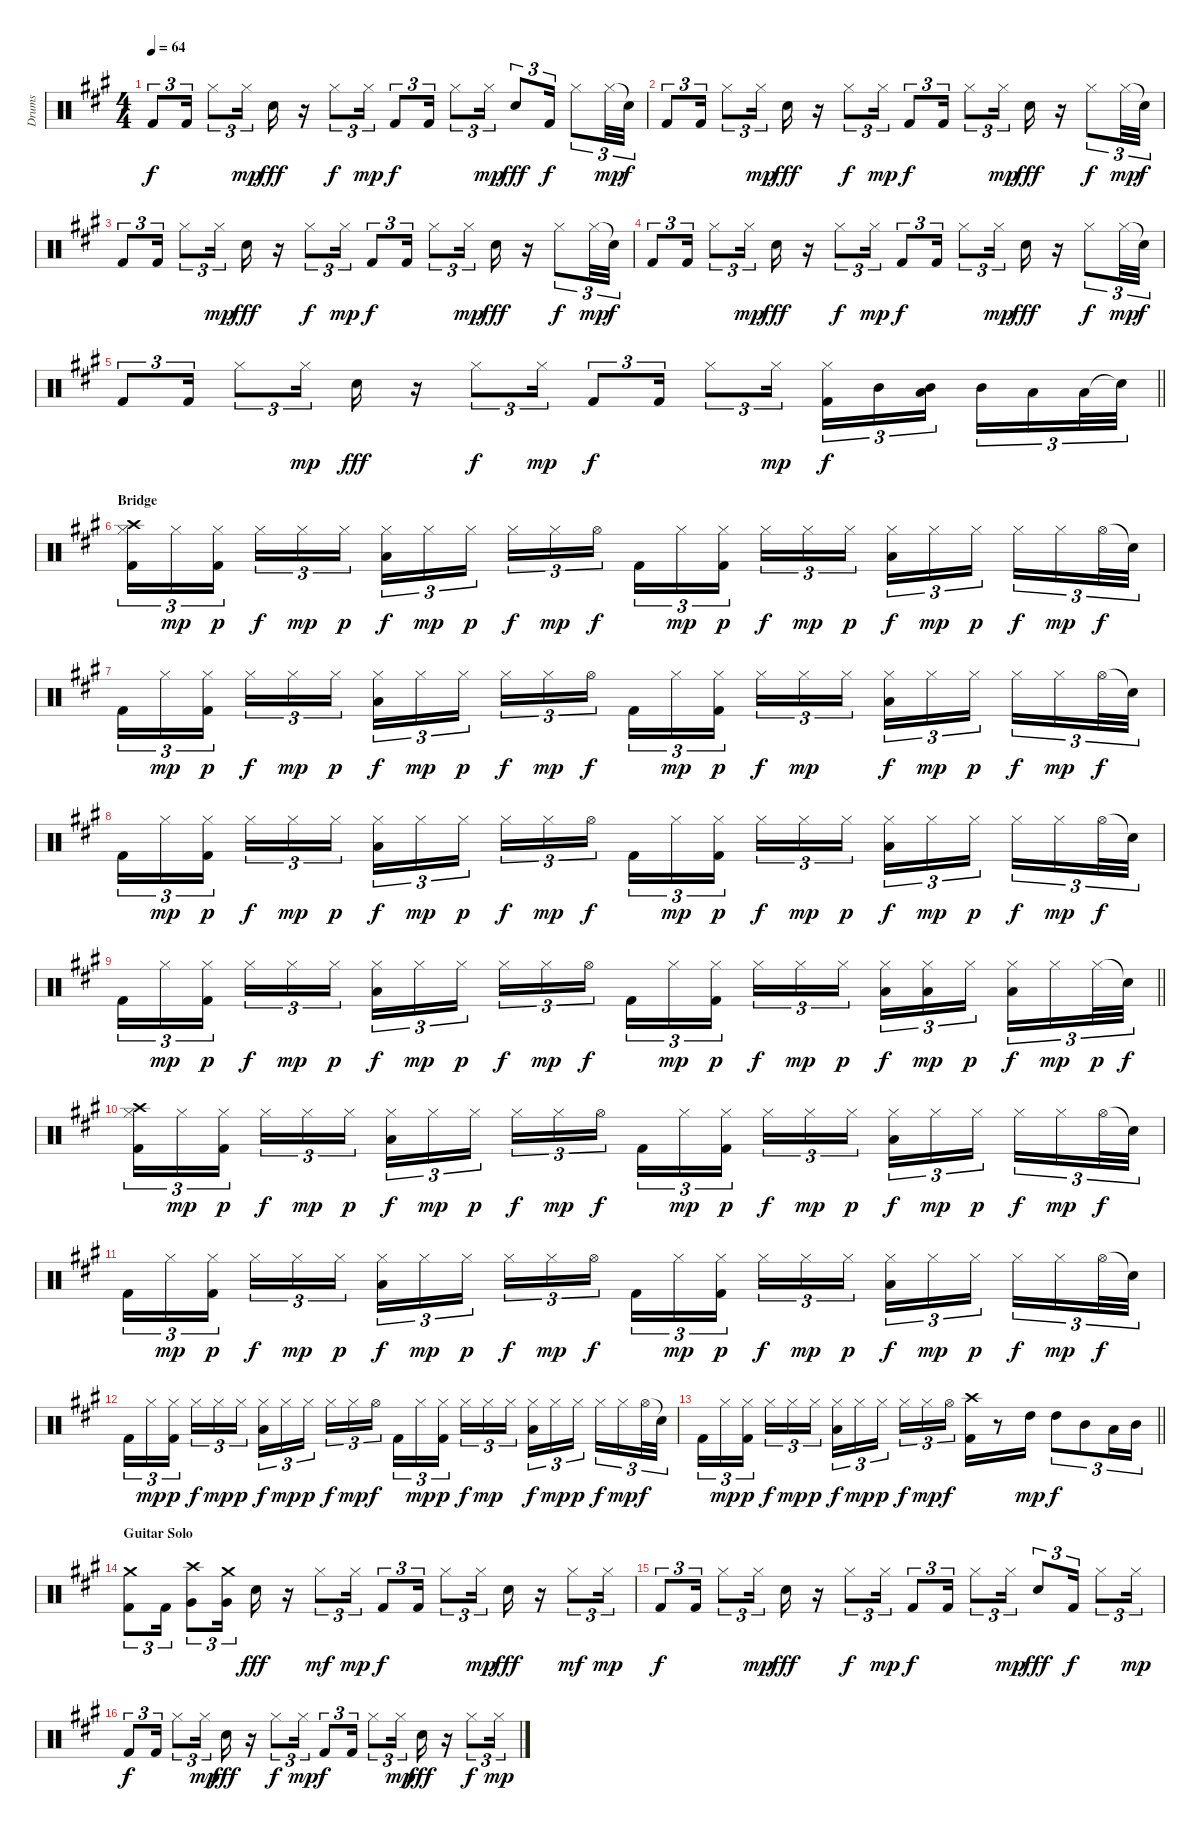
\track ("Drums          " "Drums     ") {instrument percussion}
\staff {score}
\articulation defaults
\ts (4 4)
\tempo 64
\clef neutral
\ks f#minor "Kick (hit) 2".8{tu (3 2) dy f} "Kick (hit) 2".16{tu (3 2)} "Hi-Hat (closed)".8{tu (3 2)} "Hi-Hat (closed)".16{tu (3 2) dy mp} "Snare (hit) 2".16{dy fff}
r.16 "Hi-Hat (closed)".8{tu (3 2) dy f} "Hi-Hat (closed)".16{tu (3 2) dy mp} "Kick (hit) 2".8{tu (3 2) dy f} "Kick (hit) 2".16{tu (3 2)} "Hi-Hat (closed)".8{tu (3 2)} "Hi-Hat (closed)".16{tu (3 2) dy mp} "Snare (hit) 2".8{tu (3 2) dy fff} "Kick (hit) 2".16{tu (3 2) dy f} "Hi-Hat (closed)".8{tu (3 2)} "Hi-Hat (closed)".32{tu (3 2) dy mp} "Snare (hit)"{t}.32{tu (3 2) dy f} |
"Kick (hit) 2".8{tu (3 2)} "Kick (hit) 2".16{tu (3 2)} "Hi-Hat (closed)".8{tu (3 2)} "Hi-Hat (closed)".16{tu (3 2) dy mp} "Snare (hit) 2".16{dy fff} r.16 "Hi-Hat (closed)".8{tu (3 2) dy f} "Hi-Hat (closed)".16{tu (3 2) dy mp} "Kick (hit) 2".8{tu (3 2) dy f} "Kick (hit) 2".16{tu (3 2)} "Hi-Hat (closed)".8{tu (3 2)} "Hi-Hat (closed)".16{tu (3 2) dy mp} "Snare (hit) 2".16{dy fff} r.16 "Hi-Hat (closed)".8{tu (3 2) dy f} "Hi-Hat (closed)".32{tu (3 2) dy mp} "Snare (hit)"{t}.32{tu (3 2) dy f} |
"Kick (hit) 2".8{tu (3 2)} "Kick (hit) 2".16{tu (3 2)} "Hi-Hat (closed)".8{tu (3 2)} "Hi-Hat (closed)".16{tu (3 2) dy mp} "Snare (hit) 2".16{dy fff} r.16 "Hi-Hat (closed)".8{tu (3 2) dy f} "Hi-Hat (closed)".16{tu (3 2) dy mp} "Kick (hit) 2".8{tu (3 2) dy f} "Kick (hit) 2".16{tu (3 2)} "Hi-Hat (closed)".8{tu (3 2)} "Hi-Hat (closed)".16{tu (3 2) dy mp} "Snare (hit) 2".16{dy fff} r.16 "Hi-Hat (closed)".8{tu (3 2) dy f} "Hi-Hat (closed)".32{tu (3 2) dy mp} "Snare (hit)"{t}.32{tu (3 2) dy f} |
"Kick (hit) 2".8{tu (3 2)} "Kick (hit) 2".16{tu (3 2)} "Hi-Hat (closed)".8{tu (3 2)} "Hi-Hat (closed)".16{tu (3 2) dy mp} "Snare (hit) 2".16{dy fff} r.16 "Hi-Hat (closed)".8{tu (3 2) dy f} "Hi-Hat (closed)".16{tu (3 2) dy mp} "Kick (hit) 2".8{tu (3 2) dy f} "Kick (hit) 2".16{tu (3 2)} "Hi-Hat (closed)".8{tu (3 2)} "Hi-Hat (closed)".16{tu (3 2) dy mp} "Snare (hit) 2".16{dy fff} r.16 "Hi-Hat (closed)".8{tu (3 2) dy f} "Hi-Hat (closed)".32{tu (3 2) dy mp} "Snare (hit)"{t}.32{tu (3 2) dy f} |
\barLineRight lightlight "Kick (hit) 2".8{tu (3 2)} "Kick (hit) 2".16{tu (3 2)} "Hi-Hat (closed)".8{tu (3 2)} "Hi-Hat (closed)".16{tu (3 2) dy mp} "Snare (hit) 2".16{dy fff}
r.16 "Hi-Hat (closed)".8{tu (3 2) dy f} "Hi-Hat (closed)".16{tu (3 2) dy mp} "Kick (hit) 2".8{tu (3 2) dy f} "Kick (hit) 2".16{tu (3 2)} "Hi-Hat (closed)".8{tu (3 2)} "Hi-Hat (closed)".16{tu (3 2) dy mp} ("Hi-Hat (closed)" "Kick (hit) 2").16{tu (3 2) dy f} "Mid Tom (hit)".16{tu (3 2)} ("Low Tom (hit)" "Mid Tom (hit)").16{tu (3 2) beam splitsecondary} "Mid Tom (hit)".16{tu (3 2)} "Low Floor Tom (hit)".16{tu (3 2)} "Low Floor Tom (hit)".32{tu (3 2)} "Snare (hit)"{t}.32{tu (3 2)} |
\section ("" "Bridge")
("Crash high (hit)" "Hi-Hat (closed)" "Kick (hit) 2").16{tu (3 2)} "Hi-Hat (closed)".16{tu (3 2) dy mp} ("Hi-Hat (closed)" "Kick (hit) 2").16{tu (3 2) dy p beam splitsecondary} "Hi-Hat (closed)".16{tu (3 2) dy f} "Hi-Hat (closed)".16{tu (3 2) dy mp} "Hi-Hat (closed)".16{tu (3 2) dy p} ("Hi-Hat (closed)" "Low Floor Tom (hit)").16{tu (3 2) dy f} "Hi-Hat (closed)".16{tu (3 2) dy mp} "Hi-Hat (closed)".16{tu (3 2) dy p beam splitsecondary} "Hi-Hat (closed)".16{tu (3 2) dy f} "Hi-Hat (closed)".16{tu (3 2) dy mp} "Hi-Hat (open)".16{tu (3 2) dy f} "Kick (hit) 2".16{tu (3 2)} "Hi-Hat (closed)".16{tu (3 2) dy mp} ("Hi-Hat (closed)" "Kick (hit) 2").16{tu (3 2) dy p beam splitsecondary} "Hi-Hat (closed)".16{tu (3 2) dy f} "Hi-Hat (closed)".16{tu (3 2) dy mp} "Hi-Hat (closed)".16{tu (3 2) dy p} ("Hi-Hat (closed)" "Low Floor Tom (hit)").16{tu (3 2) dy f} "Hi-Hat (closed)".16{tu (3 2) dy mp} "Hi-Hat (closed)".16{tu (3 2) dy p beam splitsecondary} "Hi-Hat (closed)".16{tu (3 2) dy f} "Hi-Hat (closed)".16{tu (3 2) dy mp} "Hi-Hat (open)".32{tu (3 2) dy f} "Snare (hit)"{t}.32{tu (3 2)} |
"Kick (hit) 2".16{tu (3 2)} "Hi-Hat (closed)".16{tu (3 2) dy mp} ("Hi-Hat (closed)" "Kick (hit) 2").16{tu (3 2) dy p beam splitsecondary} "Hi-Hat (closed)".16{tu (3 2) dy f} "Hi-Hat (closed)".16{tu (3 2) dy mp} "Hi-Hat (closed)".16{tu (3 2) dy p} ("Hi-Hat (closed)" "Low Floor Tom (hit)").16{tu (3 2) dy f} "Hi-Hat (closed)".16{tu (3 2) dy mp} "Hi-Hat (closed)".16{tu (3 2) dy p beam splitsecondary} "Hi-Hat (closed)".16{tu (3 2) dy f} "Hi-Hat (closed)".16{tu (3 2) dy mp} "Hi-Hat (open)".16{tu (3 2) dy f} "Kick (hit) 2".16{tu (3 2)} "Hi-Hat (closed)".16{tu (3 2) dy mp} ("Hi-Hat (closed)" "Kick (hit) 2").16{tu (3 2) dy p beam splitsecondary} "Hi-Hat (closed)".16{tu (3 2) dy f} "Hi-Hat (closed)".16{tu (3 2) dy mp} "Hi-Hat (closed)".16{tu (3 2)} ("Hi-Hat (closed)" "Low Floor Tom (hit)").16{tu (3 2) dy f} "Hi-Hat (closed)".16{tu (3 2) dy mp} "Hi-Hat (closed)".16{tu (3 2) dy p beam splitsecondary} "Hi-Hat (closed)".16{tu (3 2) dy f} "Hi-Hat (closed)".16{tu (3 2) dy mp} "Hi-Hat (open)".32{tu (3 2) dy f} "Snare (hit)"{t}.32{tu (3 2)} |
"Kick (hit) 2".16{tu (3 2)} "Hi-Hat (closed)".16{tu (3 2) dy mp} ("Hi-Hat (closed)" "Kick (hit) 2").16{tu (3 2) dy p beam splitsecondary} "Hi-Hat (closed)".16{tu (3 2) dy f} "Hi-Hat (closed)".16{tu (3 2) dy mp} "Hi-Hat (closed)".16{tu (3 2) dy p} ("Hi-Hat (closed)" "Low Floor Tom (hit)").16{tu (3 2) dy f} "Hi-Hat (closed)".16{tu (3 2) dy mp} "Hi-Hat (closed)".16{tu (3 2) dy p beam splitsecondary} "Hi-Hat (closed)".16{tu (3 2) dy f} "Hi-Hat (closed)".16{tu (3 2) dy mp} "Hi-Hat (open)".16{tu (3 2) dy f} "Kick (hit) 2".16{tu (3 2)} "Hi-Hat (closed)".16{tu (3 2) dy mp} ("Hi-Hat (closed)" "Kick (hit) 2").16{tu (3 2) dy p beam splitsecondary} "Hi-Hat (closed)".16{tu (3 2) dy f} "Hi-Hat (closed)".16{tu (3 2) dy mp} "Hi-Hat (closed)".16{tu (3 2) dy p} ("Hi-Hat (closed)" "Low Floor Tom (hit)").16{tu (3 2) dy f} "Hi-Hat (closed)".16{tu (3 2) dy mp} "Hi-Hat (closed)".16{tu (3 2) dy p beam splitsecondary} "Hi-Hat (closed)".16{tu (3 2) dy f} "Hi-Hat (closed)".16{tu (3 2) dy mp} "Hi-Hat (open)".32{tu (3 2) dy f} "Snare (hit)"{t}.32{tu (3 2)} |
\barLineRight lightlight "Kick (hit) 2".16{tu (3 2)} "Hi-Hat (closed)".16{tu (3 2) dy mp}
("Hi-Hat (closed)" "Kick (hit) 2").16{tu (3 2) dy p beam splitsecondary} "Hi-Hat (closed)".16{tu (3 2) dy f} "Hi-Hat (closed)".16{tu (3 2) dy mp} "Hi-Hat (closed)".16{tu (3 2) dy p} ("Hi-Hat (closed)" "Low Floor Tom (hit)").16{tu (3 2) dy f} "Hi-Hat (closed)".16{tu (3 2) dy mp} "Hi-Hat (closed)".16{tu (3 2) dy p beam splitsecondary} "Hi-Hat (closed)".16{tu (3 2) dy f} "Hi-Hat (closed)".16{tu (3 2) dy mp} "Hi-Hat (open)".16{tu (3 2) dy f} "Kick (hit) 2".16{tu (3 2)} "Hi-Hat (closed)".16{tu (3 2) dy mp} ("Hi-Hat (closed)" "Kick (hit) 2").16{tu (3 2) dy p beam splitsecondary} "Hi-Hat (closed)".16{tu (3 2) dy f} "Hi-Hat (closed)".16{tu (3 2) dy mp} "Hi-Hat (closed)".16{tu (3 2) dy p} ("Hi-Hat (closed)" "Low Floor Tom (hit)").16{tu (3 2) dy f} ("Hi-Hat (closed)" "Low Tom (hit)").16{tu (3 2) dy mp} "Hi-Hat (closed)".16{tu (3 2) dy p beam splitsecondary} ("Hi-Hat (closed)" "Low Tom (hit)").16{tu (3 2) dy f} "Hi-Hat (closed)".16{tu (3 2) dy mp} "Hi-Hat (closed)".32{tu (3 2) dy p} "Snare (hit)"{t}.32{tu (3 2) dy f} |
("Crash high (hit)" "Hi-Hat (closed)" "Kick (hit) 2").16{tu (3 2)} "Hi-Hat (closed)".16{tu (3 2) dy mp} ("Hi-Hat (closed)" "Kick (hit) 2").16{tu (3 2) dy p beam splitsecondary} "Hi-Hat (closed)".16{tu (3 2) dy f} "Hi-Hat (closed)".16{tu (3 2) dy mp} "Hi-Hat (closed)".16{tu (3 2) dy p} ("Hi-Hat (closed)" "Low Floor Tom (hit)").16{tu (3 2) dy f} "Hi-Hat (closed)".16{tu (3 2) dy mp} "Hi-Hat (closed)".16{tu (3 2) dy p beam splitsecondary} "Hi-Hat (closed)".16{tu (3 2) dy f} "Hi-Hat (closed)".16{tu (3 2) dy mp} "Hi-Hat (open)".16{tu (3 2) dy f} "Kick (hit) 2".16{tu (3 2)} "Hi-Hat (closed)".16{tu (3 2) dy mp} ("Hi-Hat (closed)" "Kick (hit) 2").16{tu (3 2) dy p beam splitsecondary} "Hi-Hat (closed)".16{tu (3 2) dy f} "Hi-Hat (closed)".16{tu (3 2) dy mp} "Hi-Hat (closed)".16{tu (3 2) dy p} ("Hi-Hat (closed)" "Low Floor Tom (hit)").16{tu (3 2) dy f} "Hi-Hat (closed)".16{tu (3 2) dy mp} "Hi-Hat (closed)".16{tu (3 2) dy p beam splitsecondary} "Hi-Hat (closed)".16{tu (3 2) dy f} "Hi-Hat (closed)".16{tu (3 2) dy mp} "Hi-Hat (open)".32{tu (3 2) dy f} "Snare (hit)"{t}.32{tu (3 2)} |
"Kick (hit) 2".16{tu (3 2)} "Hi-Hat (closed)".16{tu (3 2) dy mp} ("Hi-Hat (closed)" "Kick (hit) 2").16{tu (3 2) dy p beam splitsecondary} "Hi-Hat (closed)".16{tu (3 2) dy f} "Hi-Hat (closed)".16{tu (3 2) dy mp} "Hi-Hat (closed)".16{tu (3 2) dy p} ("Hi-Hat (closed)" "Low Floor Tom (hit)").16{tu (3 2) dy f} "Hi-Hat (closed)".16{tu (3 2) dy mp} "Hi-Hat (closed)".16{tu (3 2) dy p beam splitsecondary} "Hi-Hat (closed)".16{tu (3 2) dy f} "Hi-Hat (closed)".16{tu (3 2) dy mp} "Hi-Hat (open)".16{tu (3 2) dy f} "Kick (hit) 2".16{tu (3 2)} "Hi-Hat (closed)".16{tu (3 2) dy mp} ("Hi-Hat (closed)" "Kick (hit) 2").16{tu (3 2) dy p beam splitsecondary} "Hi-Hat (closed)".16{tu (3 2) dy f} "Hi-Hat (closed)".16{tu (3 2) dy mp} "Hi-Hat (closed)".16{tu (3 2) dy p} ("Hi-Hat (closed)" "Low Floor Tom (hit)").16{tu (3 2) dy f} "Hi-Hat (closed)".16{tu (3 2) dy mp} "Hi-Hat (closed)".16{tu (3 2) dy p beam splitsecondary} "Hi-Hat (closed)".16{tu (3 2) dy f} "Hi-Hat (closed)".16{tu (3 2) dy mp} "Hi-Hat (open)".32{tu (3 2) dy f} "Snare (hit)"{t}.32{tu (3 2)} |
"Kick (hit) 2".16{tu (3 2)} "Hi-Hat (closed)".16{tu (3 2) dy mp} ("Hi-Hat (closed)" "Kick (hit) 2").16{tu (3 2) dy p beam splitsecondary} "Hi-Hat (closed)".16{tu (3 2) dy f} "Hi-Hat (closed)".16{tu (3 2) dy mp} "Hi-Hat (closed)".16{tu (3 2) dy p} ("Hi-Hat (closed)" "Low Floor Tom (hit)").16{tu (3 2) dy f} "Hi-Hat (closed)".16{tu (3 2) dy mp} "Hi-Hat (closed)".16{tu (3 2) dy p beam splitsecondary} "Hi-Hat (closed)".16{tu (3 2) dy f} "Hi-Hat (closed)".16{tu (3 2) dy mp} "Hi-Hat (open)".16{tu (3 2) dy f} "Kick (hit) 2".16{tu (3 2)} "Hi-Hat (closed)".16{tu (3 2) dy mp} ("Hi-Hat (closed)" "Kick (hit) 2").16{tu (3 2) dy p beam splitsecondary} "Hi-Hat (closed)".16{tu (3 2) dy f} "Hi-Hat (closed)".16{tu (3 2) dy mp} "Hi-Hat (closed)".16{tu (3 2)} ("Hi-Hat (closed)" "Low Floor Tom (hit)").16{tu (3 2) dy f} "Hi-Hat (closed)".16{tu (3 2) dy mp} "Hi-Hat (closed)".16{tu (3 2) dy p beam splitsecondary} "Hi-Hat (closed)".16{tu (3 2) dy f} "Hi-Hat (closed)".16{tu (3 2) dy mp} "Hi-Hat (open)".32{tu (3 2) dy f} "Snare (hit)"{t}.32{tu (3 2)} |
\barLineRight lightlight "Kick (hit) 2".16{tu (3 2)} "Hi-Hat (closed)".16{tu (3 2) dy mp}
("Hi-Hat (closed)" "Kick (hit) 2").16{tu (3 2) dy p beam splitsecondary} "Hi-Hat (closed)".16{tu (3 2) dy f} "Hi-Hat (closed)".16{tu (3 2) dy mp} "Hi-Hat (closed)".16{tu (3 2) dy p} ("Hi-Hat (closed)" "Low Floor Tom (hit)").16{tu (3 2) dy f} "Hi-Hat (closed)".16{tu (3 2) dy mp} "Hi-Hat (closed)".16{tu (3 2) dy p beam splitsecondary} "Hi-Hat (closed)".16{tu (3 2) dy f} "Hi-Hat (closed)".16{tu (3 2) dy mp} "Hi-Hat (open)".16{tu (3 2) dy f} ("Kick (hit) 2" "Crash high (hit)").16 r.8 "High Tom (hit)".16{dy mp} "High Tom (hit)".8{tu (3 2) dy f} "Mid Tom (hit)".8{tu (3 2)} "Low Tom (hit)".16{tu (3 2)} "Mid Tom (hit)".16{tu (3 2)} |
\section ("" "Guitar Solo")
("Crash medium (hit)" "Kick (hit) 2").8{tu (3 2)} "Kick (hit) 2".16{tu (3 2)} ("Crash high (hit)" "Very Low Tom (hit)").8{tu (3 2)} ("Crash medium (hit)" "Very Low Tom (hit)").16{tu (3 2)} "Snare (hit) 2".16{dy fff} r.16 "Hi-Hat (closed)".8{tu (3 2) dy mf} "Hi-Hat (closed)".16{tu (3 2) dy mp} "Kick (hit) 2".8{tu (3 2) dy f} "Kick (hit) 2".16{tu (3 2)} "Hi-Hat (closed)".8{tu (3 2)} "Hi-Hat (closed)".16{tu (3 2) dy mp} "Snare (hit) 2".16{dy fff} r.16 "Hi-Hat (closed)".8{tu (3 2) dy mf} "Hi-Hat (closed)".16{tu (3 2) dy mp} |
"Kick (hit) 2".8{tu (3 2) dy f} "Kick (hit) 2".16{tu (3 2)} "Hi-Hat (closed)".8{tu (3 2)} "Hi-Hat (closed)".16{tu (3 2) dy mp} "Snare (hit) 2".16{dy fff} r.16 "Hi-Hat (closed)".8{tu (3 2) dy f} "Hi-Hat (closed)".16{tu (3 2) dy mp} "Kick (hit) 2".8{tu (3 2) dy f} "Kick (hit) 2".16{tu (3 2)} "Hi-Hat (closed)".8{tu (3 2)} "Hi-Hat (closed)".16{tu (3 2) dy mp} "Snare (hit) 2".8{tu (3 2) dy fff} "Kick (hit) 2".16{tu (3 2) dy f} "Hi-Hat (closed)".8{tu (3 2)} "Hi-Hat (closed)".16{tu (3 2) dy mp} |
"Kick (hit) 2".8{tu (3 2) dy f} "Kick (hit) 2".16{tu (3 2)} "Hi-Hat (closed)".8{tu (3 2)} "Hi-Hat (closed)".16{tu (3 2) dy mp} "Snare (hit) 2".16{dy fff} r.16 "Hi-Hat (closed)".8{tu (3 2) dy f} "Hi-Hat (closed)".16{tu (3 2) dy mp} "Kick (hit) 2".8{tu (3 2) dy f} "Kick (hit) 2".16{tu (3 2)} "Hi-Hat (closed)".8{tu (3 2)} "Hi-Hat (closed)".16{tu (3 2) dy mp} "Snare (hit) 2".16{dy fff} r.16 "Hi-Hat (closed)".8{tu (3 2) dy f} "Hi-Hat (closed)".16{tu (3 2) dy mp}
